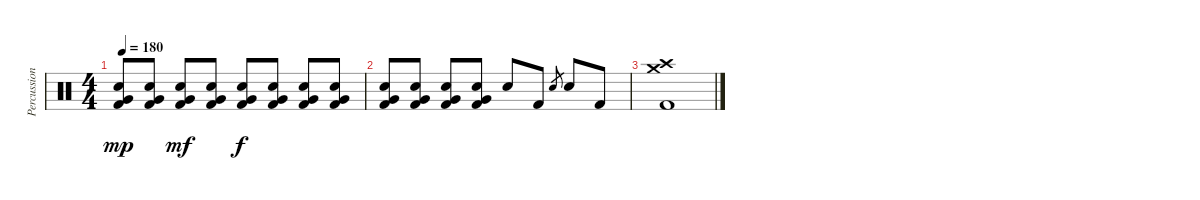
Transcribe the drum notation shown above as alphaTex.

\track ("Percussion" "Percussion") {instrument percussion}
\staff {score}
\articulation defaults
\ts (4 4)
\tempo 180
\clef neutral
\ks c
("Very Low Tom (hit)" "Snare (hit) 2" "Kick (hit) 2").8{dy mp} ("Very Low Tom (hit)" "Snare (hit) 2" "Kick (hit) 2").8 ("Very Low Tom (hit)" "Snare (hit) 2" "Kick (hit) 2").8{dy mf} ("Very Low Tom (hit)" "Snare (hit) 2" "Kick (hit) 2").8 ("Very Low Tom (hit)" "Snare (hit) 2" "Kick (hit) 2").8{dy f} ("Very Low Tom (hit)" "Snare (hit) 2" "Kick (hit) 2").8 ("Very Low Tom (hit)" "Snare (hit) 2" "Kick (hit) 2").8 ("Very Low Tom (hit)" "Snare (hit) 2" "Kick (hit) 2").8 |
("Very Low Tom (hit)" "Snare (hit) 2" "Kick (hit) 2").8 ("Very Low Tom (hit)" "Snare (hit) 2" "Kick (hit) 2").8 ("Very Low Tom (hit)" "Snare (hit) 2" "Kick (hit) 2").8 ("Very Low Tom (hit)" "Snare (hit) 2" "Kick (hit) 2").8 "Snare (hit) 2".8 "Kick (hit) 2".8 "Snare (hit) 2".8{gr} "Snare (hit) 2".8 "Kick (hit) 2".8 |
("Crash high (hit)" "Crash medium (hit)" "Kick (hit) 2").1{volume 0}
